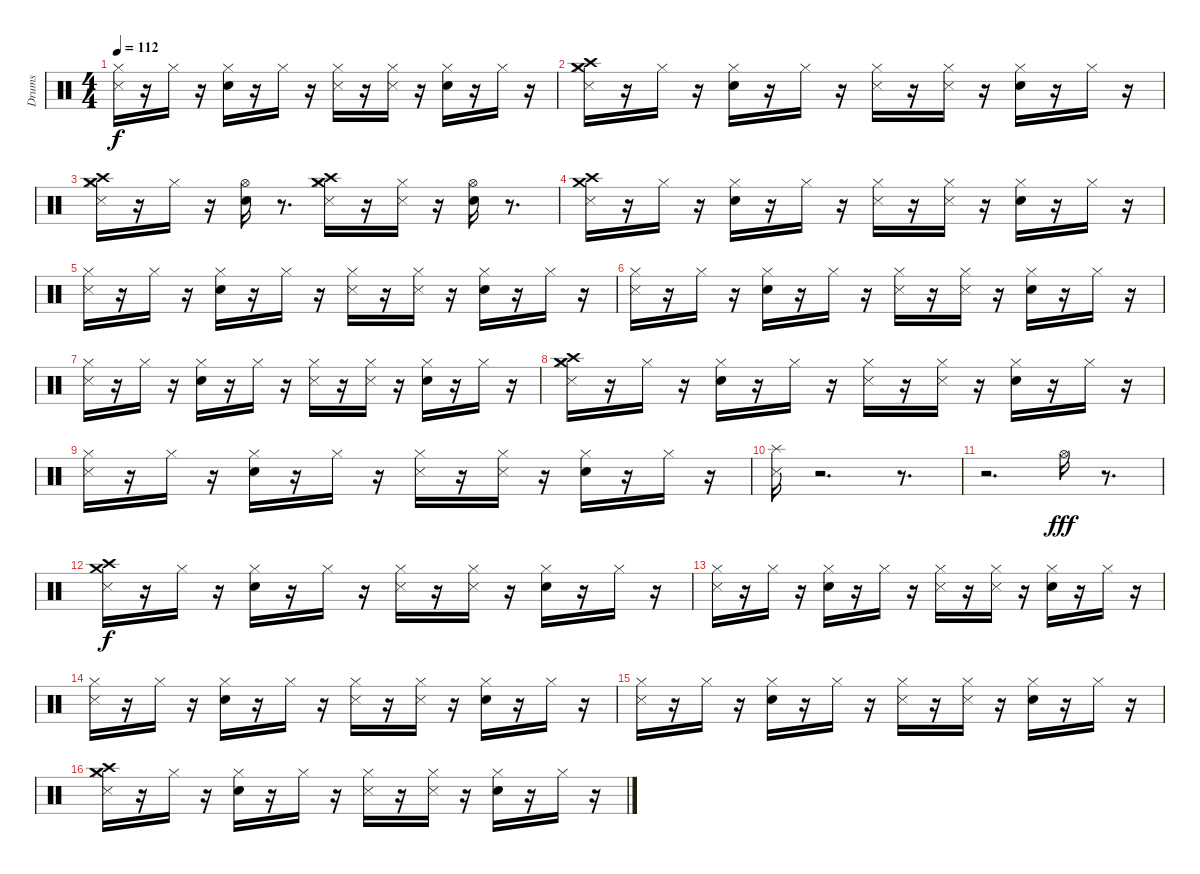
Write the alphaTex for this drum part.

\track ("Drums" "Drums") {instrument percussion}
\staff {score}
\articulation defaults
\ts (4 4)
\tempo 112
\clef neutral
\ks c
("Hi-Hat (closed)" "Metronome (hit)").16{dy f} r.16 "Hi-Hat (closed)".16 r.16 ("Hi-Hat (closed)" "Electric Snare (hit)").16 r.16 "Hi-Hat (closed)".16 r.16 ("Hi-Hat (closed)" "Metronome (hit)").16 r.16 ("Hi-Hat (closed)" "Metronome (hit)").16 r.16 ("Hi-Hat (closed)" "Electric Snare (hit)").16 r.16 "Hi-Hat (closed)".16 r.16 |
("Crash medium (hit)" "Crash high (hit)" "Hi-Hat (closed)" "Metronome (hit)").16 r.16 "Hi-Hat (closed)".16 r.16 ("Hi-Hat (closed)" "Electric Snare (hit)").16 r.16 "Hi-Hat (closed)".16 r.16 ("Hi-Hat (closed)" "Metronome (hit)").16 r.16 ("Hi-Hat (closed)" "Metronome (hit)").16 r.16 ("Hi-Hat (closed)" "Electric Snare (hit)").16 r.16 "Hi-Hat (closed)".16 r.16 |
("Crash high (hit)" "Hi-Hat (closed)" "Crash medium (hit)" "Metronome (hit)").16 r.16 "Hi-Hat (closed)".16 r.16 ("Hi-Hat (open)" "Electric Snare (hit)").16 r.8{d} ("Crash medium (hit)" "Crash high (hit)" "Hi-Hat (closed)" "Metronome (hit)").16 r.16 ("Hi-Hat (closed)" "Metronome (hit)").16 r.16 ("Hi-Hat (open)" "Electric Snare (hit)").16 r.8{d} |
("Crash medium (hit)" "Crash high (hit)" "Metronome (hit)").16 r.16 "Hi-Hat (closed)".16 r.16 ("Hi-Hat (closed)" "Electric Snare (hit)").16 r.16 "Hi-Hat (closed)".16 r.16 ("Hi-Hat (closed)" "Metronome (hit)").16 r.16 ("Hi-Hat (closed)" "Metronome (hit)").16 r.16 ("Hi-Hat (closed)" "Electric Snare (hit)").16 r.16 "Hi-Hat (closed)".16 r.16 |
("Hi-Hat (closed)" "Metronome (hit)").16 r.16 "Hi-Hat (closed)".16 r.16 ("Hi-Hat (closed)" "Electric Snare (hit)").16 r.16 "Hi-Hat (closed)".16 r.16 ("Hi-Hat (closed)" "Metronome (hit)").16 r.16 ("Hi-Hat (closed)" "Metronome (hit)").16 r.16 ("Hi-Hat (closed)" "Electric Snare (hit)").16 r.16 "Hi-Hat (closed)".16 r.16 |
("Hi-Hat (closed)" "Metronome (hit)").16 r.16 "Hi-Hat (closed)".16 r.16 ("Hi-Hat (closed)" "Electric Snare (hit)").16 r.16 "Hi-Hat (closed)".16 r.16 ("Hi-Hat (closed)" "Metronome (hit)").16 r.16 ("Hi-Hat (closed)" "Metronome (hit)").16 r.16 ("Hi-Hat (closed)" "Electric Snare (hit)").16 r.16 "Hi-Hat (closed)".16 r.16 |
("Hi-Hat (closed)" "Metronome (hit)").16 r.16 "Hi-Hat (closed)".16 r.16 ("Hi-Hat (closed)" "Electric Snare (hit)").16 r.16 "Hi-Hat (closed)".16 r.16 ("Hi-Hat (closed)" "Metronome (hit)").16 r.16 ("Hi-Hat (closed)" "Metronome (hit)").16 r.16 ("Hi-Hat (closed)" "Electric Snare (hit)").16 r.16 "Hi-Hat (closed)".16 r.16 |
("Crash high (hit)" "Crash medium (hit)" "Hi-Hat (closed)" "Metronome (hit)").16 r.16 "Hi-Hat (closed)".16 r.16 ("Hi-Hat (closed)" "Electric Snare (hit)").16 r.16 "Hi-Hat (closed)".16 r.16 ("Hi-Hat (closed)" "Metronome (hit)").16 r.16 ("Hi-Hat (closed)" "Metronome (hit)").16 r.16 ("Hi-Hat (closed)" "Electric Snare (hit)").16 r.16 "Hi-Hat (closed)".16 r.16 |
("Hi-Hat (closed)" "Metronome (hit)").16 r.16 "Hi-Hat (closed)".16 r.16 ("Hi-Hat (closed)" "Electric Snare (hit)").16 r.16 "Hi-Hat (closed)".16 r.16 ("Hi-Hat (closed)" "Metronome (hit)").16 r.16 ("Hi-Hat (closed)" "Metronome (hit)").16 r.16 ("Hi-Hat (closed)" "Electric Snare (hit)").16 r.16 "Hi-Hat (closed)".16 r.16 |
("Splash (hit)" "Metronome (hit)").16 r.2{d} r.8{d} |
r.2{d} "Hi-Hat (open)".16{dy fff} r.8{d} |
("Crash medium (hit)" "Crash high (hit)" "Metronome (hit)").16{dy f} r.16 "Hi-Hat (closed)".16 r.16 ("Hi-Hat (closed)" "Electric Snare (hit)").16 r.16 "Hi-Hat (closed)".16 r.16 ("Hi-Hat (closed)" "Metronome (hit)").16 r.16 ("Hi-Hat (closed)" "Metronome (hit)").16 r.16 ("Hi-Hat (closed)" "Electric Snare (hit)").16 r.16 "Hi-Hat (closed)".16 r.16 |
("Hi-Hat (closed)" "Metronome (hit)").16 r.16 "Hi-Hat (closed)".16 r.16 ("Hi-Hat (closed)" "Electric Snare (hit)").16 r.16 "Hi-Hat (closed)".16 r.16 ("Hi-Hat (closed)" "Metronome (hit)").16 r.16 ("Hi-Hat (closed)" "Metronome (hit)").16 r.16 ("Hi-Hat (closed)" "Electric Snare (hit)").16 r.16 "Hi-Hat (closed)".16 r.16 |
("Hi-Hat (closed)" "Metronome (hit)").16 r.16 "Hi-Hat (closed)".16 r.16 ("Hi-Hat (closed)" "Electric Snare (hit)").16 r.16 "Hi-Hat (closed)".16 r.16 ("Hi-Hat (closed)" "Metronome (hit)").16 r.16 ("Hi-Hat (closed)" "Metronome (hit)").16 r.16 ("Hi-Hat (closed)" "Electric Snare (hit)").16 r.16 "Hi-Hat (closed)".16 r.16 |
("Hi-Hat (closed)" "Metronome (hit)").16 r.16 "Hi-Hat (closed)".16 r.16 ("Hi-Hat (closed)" "Electric Snare (hit)").16 r.16 "Hi-Hat (closed)".16 r.16 ("Hi-Hat (closed)" "Metronome (hit)").16 r.16 ("Hi-Hat (closed)" "Metronome (hit)").16 r.16 ("Hi-Hat (closed)" "Electric Snare (hit)").16 r.16 "Hi-Hat (closed)".16 r.16 |
("Crash high (hit)" "Crash medium (hit)" "Hi-Hat (closed)" "Metronome (hit)").16 r.16 "Hi-Hat (closed)".16 r.16 ("Hi-Hat (closed)" "Electric Snare (hit)").16 r.16 "Hi-Hat (closed)".16 r.16 ("Hi-Hat (closed)" "Metronome (hit)").16 r.16 ("Hi-Hat (closed)" "Metronome (hit)").16 r.16 ("Hi-Hat (closed)" "Electric Snare (hit)").16 r.16 "Hi-Hat (closed)".16 r.16
